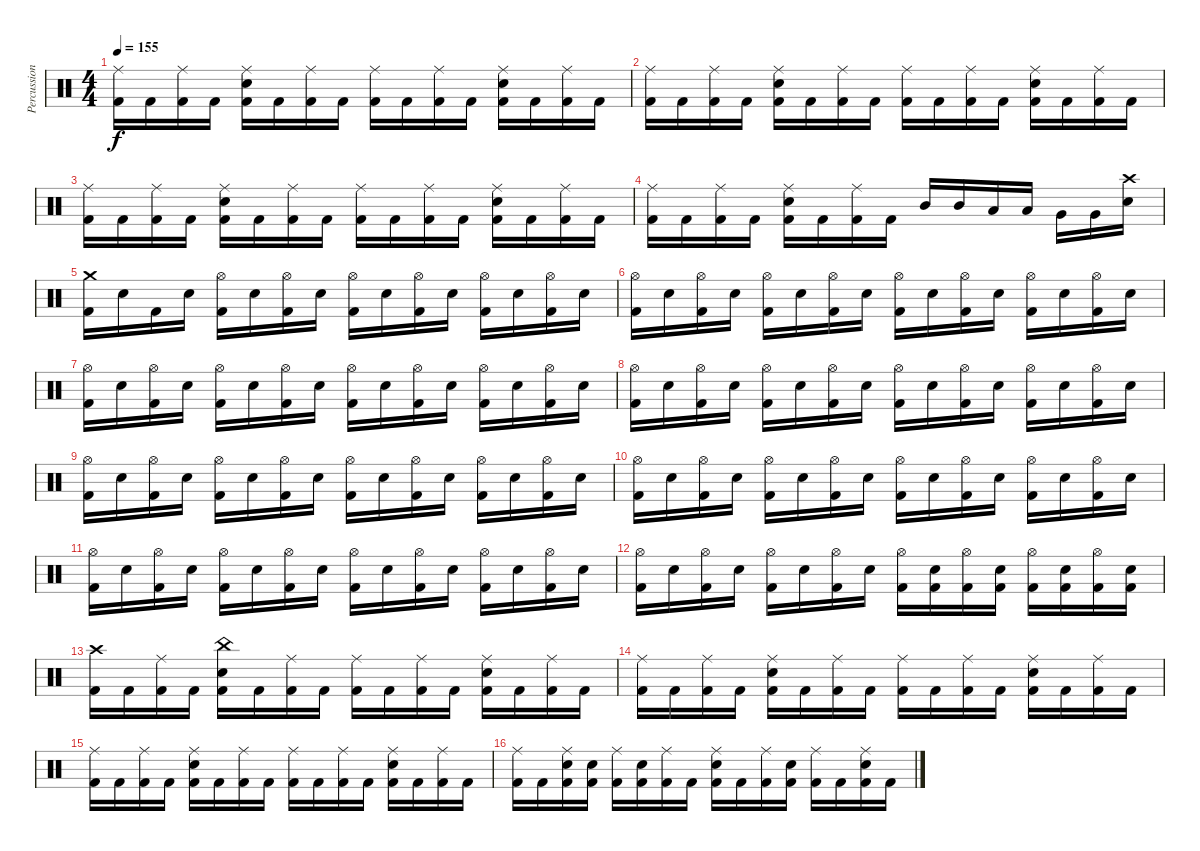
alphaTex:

\track ("Percussion" "Percussion") {instrument percussion}
\staff {score}
\articulation defaults
\ts (4 4)
\tempo 155
\clef neutral
\ks c
("Ride (middle)" "Kick (hit) 2").16{dy f} "Kick (hit) 2".16 ("Ride (middle)" "Kick (hit) 2").16 "Kick (hit) 2".16 ("Ride (middle)" "Snare (hit) 2" "Kick (hit) 2").16 "Kick (hit) 2".16 ("Ride (middle)" "Kick (hit) 2").16 "Kick (hit) 2".16 ("Ride (middle)" "Kick (hit) 2").16 "Kick (hit) 2".16 ("Ride (middle)" "Kick (hit) 2").16 "Kick (hit) 2".16 ("Ride (middle)" "Snare (hit) 2" "Kick (hit) 2").16 "Kick (hit) 2".16 ("Ride (middle)" "Kick (hit) 2").16 "Kick (hit) 2".16 |
("Ride (middle)" "Kick (hit) 2").16 "Kick (hit) 2".16 ("Ride (middle)" "Kick (hit) 2").16 "Kick (hit) 2".16 ("Ride (middle)" "Snare (hit) 2" "Kick (hit) 2").16 "Kick (hit) 2".16 ("Ride (middle)" "Kick (hit) 2").16 "Kick (hit) 2".16 ("Ride (middle)" "Kick (hit) 2").16 "Kick (hit) 2".16 ("Ride (middle)" "Kick (hit) 2").16 "Kick (hit) 2".16 ("Ride (middle)" "Snare (hit) 2" "Kick (hit) 2").16 "Kick (hit) 2".16 ("Ride (middle)" "Kick (hit) 2").16 "Kick (hit) 2".16 |
("Ride (middle)" "Kick (hit) 2").16 "Kick (hit) 2".16 ("Ride (middle)" "Kick (hit) 2").16 "Kick (hit) 2".16 ("Ride (middle)" "Snare (hit) 2" "Kick (hit) 2").16 "Kick (hit) 2".16 ("Ride (middle)" "Kick (hit) 2").16 "Kick (hit) 2".16 ("Ride (middle)" "Kick (hit) 2").16 "Kick (hit) 2".16 ("Ride (middle)" "Kick (hit) 2").16 "Kick (hit) 2".16 ("Ride (middle)" "Snare (hit) 2" "Kick (hit) 2").16 "Kick (hit) 2".16 ("Ride (middle)" "Kick (hit) 2").16 "Kick (hit) 2".16 |
("Ride (middle)" "Kick (hit) 2").16 "Kick (hit) 2".16 ("Ride (middle)" "Kick (hit) 2").16 "Kick (hit) 2".16 ("Ride (middle)" "Snare (hit) 2" "Kick (hit) 2").16 "Kick (hit) 2".16 ("Ride (middle)" "Kick (hit) 2").16 "Kick (hit) 2".16 "Mid Tom (hit)".16 "Mid Tom (hit)".16 "Low Tom (hit)".16 "Low Tom (hit)".16 "Very Low Tom (hit)".16 "Very Low Tom (hit)".16 ("Crash high (hit)" "Snare (hit) 2").16 |
("Kick (hit) 2" "Crash medium (hit)").16 "Snare (hit) 2".16 "Kick (hit) 2".16 "Snare (hit) 2".16 ("Kick (hit) 2" "Hi-Hat (open)").16 "Snare (hit) 2".16 ("Kick (hit) 2" "Hi-Hat (open)").16 "Snare (hit) 2".16 ("Kick (hit) 2" "Hi-Hat (open)").16 "Snare (hit) 2".16 ("Kick (hit) 2" "Hi-Hat (open)").16 "Snare (hit) 2".16 ("Kick (hit) 2" "Hi-Hat (open)").16 "Snare (hit) 2".16 ("Kick (hit) 2" "Hi-Hat (open)").16 "Snare (hit) 2".16 |
("Kick (hit) 2" "Hi-Hat (open)").16 "Snare (hit) 2".16 ("Kick (hit) 2" "Hi-Hat (open)").16 "Snare (hit) 2".16 ("Kick (hit) 2" "Hi-Hat (open)").16 "Snare (hit) 2".16 ("Kick (hit) 2" "Hi-Hat (open)").16 "Snare (hit) 2".16 ("Kick (hit) 2" "Hi-Hat (open)").16 "Snare (hit) 2".16 ("Kick (hit) 2" "Hi-Hat (open)").16 "Snare (hit) 2".16 ("Kick (hit) 2" "Hi-Hat (open)").16 "Snare (hit) 2".16 ("Kick (hit) 2" "Hi-Hat (open)").16 "Snare (hit) 2".16 |
("Kick (hit) 2" "Hi-Hat (open)").16 "Snare (hit) 2".16 ("Kick (hit) 2" "Hi-Hat (open)").16 "Snare (hit) 2".16 ("Kick (hit) 2" "Hi-Hat (open)").16 "Snare (hit) 2".16 ("Kick (hit) 2" "Hi-Hat (open)").16 "Snare (hit) 2".16 ("Kick (hit) 2" "Hi-Hat (open)").16 "Snare (hit) 2".16 ("Kick (hit) 2" "Hi-Hat (open)").16 "Snare (hit) 2".16 ("Kick (hit) 2" "Hi-Hat (open)").16 "Snare (hit) 2".16 ("Kick (hit) 2" "Hi-Hat (open)").16 "Snare (hit) 2".16 |
("Kick (hit) 2" "Hi-Hat (open)").16 "Snare (hit) 2".16 ("Kick (hit) 2" "Hi-Hat (open)").16 "Snare (hit) 2".16 ("Kick (hit) 2" "Hi-Hat (open)").16 "Snare (hit) 2".16 ("Kick (hit) 2" "Hi-Hat (open)").16 "Snare (hit) 2".16 ("Kick (hit) 2" "Hi-Hat (open)").16 "Snare (hit) 2".16 ("Kick (hit) 2" "Hi-Hat (open)").16 "Snare (hit) 2".16 ("Kick (hit) 2" "Hi-Hat (open)").16 "Snare (hit) 2".16 ("Kick (hit) 2" "Hi-Hat (open)").16 "Snare (hit) 2".16 |
("Kick (hit) 2" "Hi-Hat (open)").16 "Snare (hit) 2".16 ("Kick (hit) 2" "Hi-Hat (open)").16 "Snare (hit) 2".16 ("Kick (hit) 2" "Hi-Hat (open)").16 "Snare (hit) 2".16 ("Kick (hit) 2" "Hi-Hat (open)").16 "Snare (hit) 2".16 ("Kick (hit) 2" "Hi-Hat (open)").16 "Snare (hit) 2".16 ("Kick (hit) 2" "Hi-Hat (open)").16 "Snare (hit) 2".16 ("Kick (hit) 2" "Hi-Hat (open)").16 "Snare (hit) 2".16 ("Kick (hit) 2" "Hi-Hat (open)").16 "Snare (hit) 2".16 |
("Kick (hit) 2" "Hi-Hat (open)").16 "Snare (hit) 2".16 ("Kick (hit) 2" "Hi-Hat (open)").16 "Snare (hit) 2".16 ("Kick (hit) 2" "Hi-Hat (open)").16 "Snare (hit) 2".16 ("Kick (hit) 2" "Hi-Hat (open)").16 "Snare (hit) 2".16 ("Kick (hit) 2" "Hi-Hat (open)").16 "Snare (hit) 2".16 ("Kick (hit) 2" "Hi-Hat (open)").16 "Snare (hit) 2".16 ("Kick (hit) 2" "Hi-Hat (open)").16 "Snare (hit) 2".16 ("Kick (hit) 2" "Hi-Hat (open)").16 "Snare (hit) 2".16 |
("Kick (hit) 2" "Hi-Hat (open)").16 "Snare (hit) 2".16 ("Kick (hit) 2" "Hi-Hat (open)").16 "Snare (hit) 2".16 ("Kick (hit) 2" "Hi-Hat (open)").16 "Snare (hit) 2".16 ("Kick (hit) 2" "Hi-Hat (open)").16 "Snare (hit) 2".16 ("Kick (hit) 2" "Hi-Hat (open)").16 "Snare (hit) 2".16 ("Kick (hit) 2" "Hi-Hat (open)").16 "Snare (hit) 2".16 ("Kick (hit) 2" "Hi-Hat (open)").16 "Snare (hit) 2".16 ("Kick (hit) 2" "Hi-Hat (open)").16 "Snare (hit) 2".16 |
("Kick (hit) 2" "Hi-Hat (open)").16 "Snare (hit) 2".16 ("Kick (hit) 2" "Hi-Hat (open)").16 "Snare (hit) 2".16 ("Kick (hit) 2" "Hi-Hat (open)").16 "Snare (hit) 2".16 ("Kick (hit) 2" "Hi-Hat (open)").16 "Snare (hit) 2".16 ("Kick (hit) 2" "Hi-Hat (open)").16 ("Snare (hit) 2" "Kick (hit) 2").16 ("Kick (hit) 2" "Hi-Hat (open)").16 ("Snare (hit) 2" "Kick (hit) 2").16 ("Kick (hit) 2" "Hi-Hat (open)").16 ("Snare (hit) 2" "Kick (hit) 2").16 ("Kick (hit) 2" "Hi-Hat (open)").16 ("Snare (hit) 2" "Kick (hit) 2").16 |
("Crash high (hit)" "Kick (hit) 2").16 "Kick (hit) 2".16 ("Ride (middle)" "Kick (hit) 2").16 "Kick (hit) 2".16 ("China (hit)" "Snare (hit) 2" "Kick (hit) 2").16 "Kick (hit) 2".16 ("Ride (middle)" "Kick (hit) 2").16 "Kick (hit) 2".16 ("Ride (middle)" "Kick (hit) 2").16 "Kick (hit) 2".16 ("Ride (middle)" "Kick (hit) 2").16 "Kick (hit) 2".16 ("Ride (middle)" "Snare (hit) 2" "Kick (hit) 2").16 "Kick (hit) 2".16 ("Ride (middle)" "Kick (hit) 2").16 "Kick (hit) 2".16 |
("Ride (middle)" "Kick (hit) 2").16 "Kick (hit) 2".16 ("Ride (middle)" "Kick (hit) 2").16 "Kick (hit) 2".16 ("Ride (middle)" "Snare (hit) 2" "Kick (hit) 2").16 "Kick (hit) 2".16 ("Ride (middle)" "Kick (hit) 2").16 "Kick (hit) 2".16 ("Ride (middle)" "Kick (hit) 2").16 "Kick (hit) 2".16 ("Ride (middle)" "Kick (hit) 2").16 "Kick (hit) 2".16 ("Ride (middle)" "Snare (hit) 2" "Kick (hit) 2").16 "Kick (hit) 2".16 ("Ride (middle)" "Kick (hit) 2").16 "Kick (hit) 2".16 |
("Ride (middle)" "Kick (hit) 2").16 "Kick (hit) 2".16 ("Ride (middle)" "Kick (hit) 2").16 "Kick (hit) 2".16 ("Ride (middle)" "Snare (hit) 2" "Kick (hit) 2").16 "Kick (hit) 2".16 ("Ride (middle)" "Kick (hit) 2").16 "Kick (hit) 2".16 ("Ride (middle)" "Kick (hit) 2").16 "Kick (hit) 2".16 ("Ride (middle)" "Kick (hit) 2").16 "Kick (hit) 2".16 ("Ride (middle)" "Snare (hit) 2" "Kick (hit) 2").16 "Kick (hit) 2".16 ("Ride (middle)" "Kick (hit) 2").16 "Kick (hit) 2".16 |
("Ride (middle)" "Kick (hit) 2").16 "Kick (hit) 2".16 ("Ride (middle)" "Snare (hit) 2" "Kick (hit) 2").16 ("Snare (hit) 2" "Kick (hit) 2").16 ("Ride (middle)" "Kick (hit) 2").16 ("Snare (hit) 2" "Kick (hit) 2").16 ("Ride (middle)" "Kick (hit) 2").16 "Kick (hit) 2".16 ("Ride (middle)" "Snare (hit) 2" "Kick (hit) 2").16 "Kick (hit) 2".16 ("Ride (middle)" "Kick (hit) 2").16 ("Snare (hit) 2" "Kick (hit) 2").16 ("Ride (middle)" "Kick (hit) 2").16 "Kick (hit) 2".16 ("Ride (middle)" "Snare (hit) 2" "Kick (hit) 2").16 "Kick (hit) 2".16
